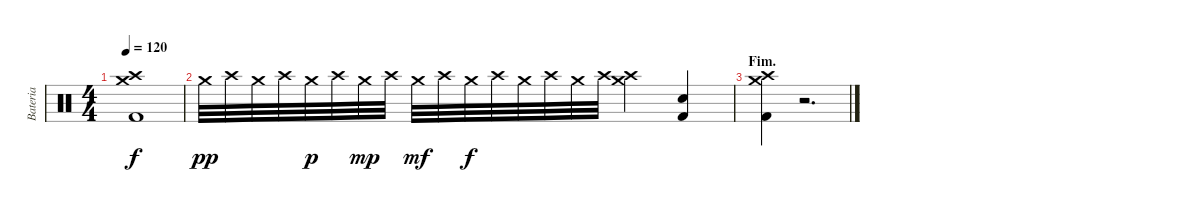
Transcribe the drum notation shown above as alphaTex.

\track ("Bateria" "Bateria") {instrument percussion}
\staff {score}
\articulation defaults
\ts (4 4)
\tempo 120
\clef neutral
\ks c
("Kick (hit) 2" "Crash medium (hit)" "Crash high (hit)").1{dy f} |
"Crash medium (hit)".32{dy pp} "Crash high (hit)".32 "Crash medium (hit)".32 "Crash high (hit)".32 "Crash medium (hit)".32{dy p} "Crash high (hit)".32 "Crash medium (hit)".32{dy mp} "Crash high (hit)".32 "Crash medium (hit)".32{dy mf} "Crash high (hit)".32 "Crash medium (hit)".32{dy f} "Crash high (hit)".32 "Crash medium (hit)".32 "Crash high (hit)".32 "Crash medium (hit)".32 "Crash high (hit)".32 ("Crash medium (hit)" "Crash high (hit)").4 ("Snare (hit) 2" "Kick (hit) 2").4 |
\section ("" "Fim.")
("Kick (hit) 2" "Crash medium (hit)" "Crash high (hit)").4 r.2{d}
